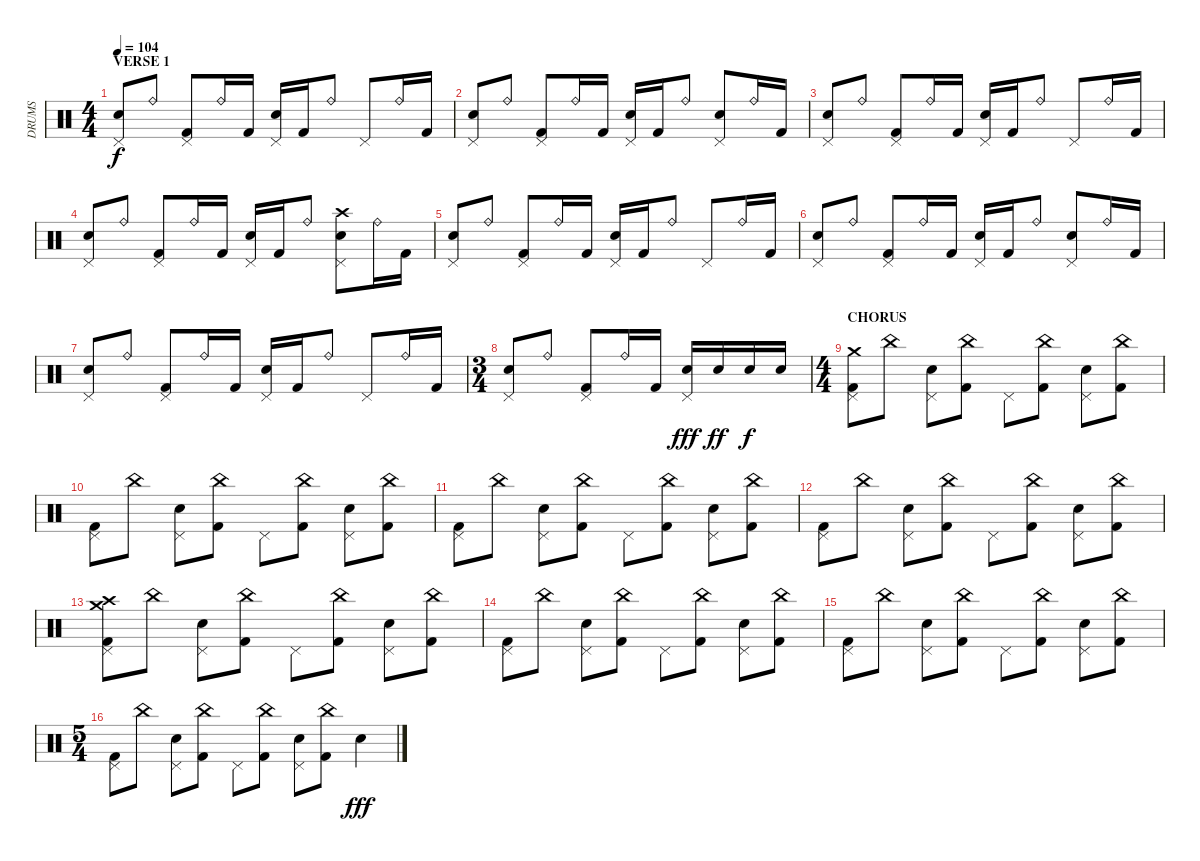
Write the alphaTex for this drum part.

\track ("DRUMS" "DRUMS") {instrument percussion}
\staff {score}
\articulation defaults
\ts (4 4)
\section ("" "VERSE 1")
\tempo 104
\clef neutral
\ks c
("Electric Snare (hit)" "Pedal Hi-Hat (hit)").8{dy f} "Ride (bell)".8 ("Pedal Hi-Hat (hit)" "Kick (hit) 2").8 "Ride (bell)".16 "Kick (hit) 2".16 ("Electric Snare (hit)" "Pedal Hi-Hat (hit)").16 "Kick (hit) 2".16 "Ride (bell)".8 "Pedal Hi-Hat (hit)".8 "Ride (bell)".16 "Kick (hit) 2".16 |
("Electric Snare (hit)" "Pedal Hi-Hat (hit)").8 "Ride (bell)".8 ("Pedal Hi-Hat (hit)" "Kick (hit) 2").8 "Ride (bell)".16 "Kick (hit) 2".16 ("Electric Snare (hit)" "Pedal Hi-Hat (hit)").16 "Kick (hit) 2".16 "Ride (bell)".8 ("Snare (hit) 2" "Pedal Hi-Hat (hit)").8 "Ride (bell)".16 "Kick (hit) 2".16 |
("Electric Snare (hit)" "Pedal Hi-Hat (hit)").8 "Ride (bell)".8 ("Pedal Hi-Hat (hit)" "Kick (hit) 2").8 "Ride (bell)".16 "Kick (hit) 2".16 ("Electric Snare (hit)" "Pedal Hi-Hat (hit)").16 "Kick (hit) 2".16 "Ride (bell)".8 "Pedal Hi-Hat (hit)".8 "Ride (bell)".16 "Kick (hit) 2".16 |
("Electric Snare (hit)" "Pedal Hi-Hat (hit)").8 "Ride (bell)".8 ("Pedal Hi-Hat (hit)" "Kick (hit) 2").8 "Ride (bell)".16 "Kick (hit) 2".16 ("Electric Snare (hit)" "Pedal Hi-Hat (hit)").16 "Kick (hit) 2".16 "Ride (bell)".8 ("Crash high (hit)" "Snare (hit) 2" "Pedal Hi-Hat (hit)").8 "Ride (bell)".16 "Kick (hit) 2".16 |
("Electric Snare (hit)" "Pedal Hi-Hat (hit)").8 "Ride (bell)".8 ("Pedal Hi-Hat (hit)" "Kick (hit) 2").8 "Ride (bell)".16 "Kick (hit) 2".16 ("Electric Snare (hit)" "Pedal Hi-Hat (hit)").16 "Kick (hit) 2".16 "Ride (bell)".8 "Pedal Hi-Hat (hit)".8 "Ride (bell)".16 "Kick (hit) 2".16 |
("Electric Snare (hit)" "Pedal Hi-Hat (hit)").8 "Ride (bell)".8 ("Pedal Hi-Hat (hit)" "Kick (hit) 2").8 "Ride (bell)".16 "Kick (hit) 2".16 ("Electric Snare (hit)" "Pedal Hi-Hat (hit)").16 "Kick (hit) 2".16 "Ride (bell)".8 ("Snare (hit) 2" "Pedal Hi-Hat (hit)").8 "Ride (bell)".16 "Kick (hit) 2".16 |
("Electric Snare (hit)" "Pedal Hi-Hat (hit)").8 "Ride (bell)".8 ("Pedal Hi-Hat (hit)" "Kick (hit) 2").8 "Ride (bell)".16 "Kick (hit) 2".16 ("Electric Snare (hit)" "Pedal Hi-Hat (hit)").16 "Kick (hit) 2".16 "Ride (bell)".8 "Pedal Hi-Hat (hit)".8 "Ride (bell)".16 "Kick (hit) 2".16 |
\ts (3 4)
("Electric Snare (hit)" "Pedal Hi-Hat (hit)").8 "Ride (bell)".8 ("Pedal Hi-Hat (hit)" "Kick (hit) 2").8 "Ride (bell)".16 "Kick (hit) 2".16 ("Electric Snare (hit)" "Pedal Hi-Hat (hit)").16{dy fff} "Electric Snare (hit)".16{dy ff} "Electric Snare (hit)".16{dy f} "Electric Snare (hit)".16 |
\ts (4 4)
\section ("" "CHORUS")
("Crash medium (hit)" "Pedal Hi-Hat (hit)" "Kick (hit) 2").8 "China (hit)".8 ("Electric Snare (hit)" "Pedal Hi-Hat (hit)").8 ("China (hit)" "Kick (hit) 2").8 "Pedal Hi-Hat (hit)".8 ("China (hit)" "Kick (hit) 2").8 ("Electric Snare (hit)" "Pedal Hi-Hat (hit)").8 ("China (hit)" "Kick (hit) 2").8 |
("Pedal Hi-Hat (hit)" "Kick (hit) 2").8 "China (hit)".8 ("Electric Snare (hit)" "Pedal Hi-Hat (hit)").8 ("China (hit)" "Kick (hit) 2").8 "Pedal Hi-Hat (hit)".8 ("China (hit)" "Kick (hit) 2").8 ("Electric Snare (hit)" "Pedal Hi-Hat (hit)").8 ("China (hit)" "Kick (hit) 2").8 |
("Pedal Hi-Hat (hit)" "Kick (hit) 2").8 "China (hit)".8 ("Electric Snare (hit)" "Pedal Hi-Hat (hit)").8 ("China (hit)" "Kick (hit) 2").8 "Pedal Hi-Hat (hit)".8 ("China (hit)" "Kick (hit) 2").8 ("Electric Snare (hit)" "Pedal Hi-Hat (hit)").8 ("China (hit)" "Kick (hit) 2").8 |
("Pedal Hi-Hat (hit)" "Kick (hit) 2").8 "China (hit)".8 ("Electric Snare (hit)" "Pedal Hi-Hat (hit)").8 ("China (hit)" "Kick (hit) 2").8 "Pedal Hi-Hat (hit)".8 ("China (hit)" "Kick (hit) 2").8 ("Electric Snare (hit)" "Pedal Hi-Hat (hit)").8 ("China (hit)" "Kick (hit) 2").8 |
("Crash medium (hit)" "Crash high (hit)" "Pedal Hi-Hat (hit)" "Kick (hit) 2").8 "China (hit)".8 ("Electric Snare (hit)" "Pedal Hi-Hat (hit)").8 ("China (hit)" "Kick (hit) 2").8 "Pedal Hi-Hat (hit)".8 ("China (hit)" "Kick (hit) 2").8 ("Electric Snare (hit)" "Pedal Hi-Hat (hit)").8 ("China (hit)" "Kick (hit) 2").8 |
("Pedal Hi-Hat (hit)" "Kick (hit) 2").8 "China (hit)".8 ("Electric Snare (hit)" "Pedal Hi-Hat (hit)").8 ("China (hit)" "Kick (hit) 2").8 "Pedal Hi-Hat (hit)".8 ("China (hit)" "Kick (hit) 2").8 ("Electric Snare (hit)" "Pedal Hi-Hat (hit)").8 ("China (hit)" "Kick (hit) 2").8 |
("Pedal Hi-Hat (hit)" "Kick (hit) 2").8 "China (hit)".8 ("Electric Snare (hit)" "Pedal Hi-Hat (hit)").8 ("China (hit)" "Kick (hit) 2").8 "Pedal Hi-Hat (hit)".8 ("China (hit)" "Kick (hit) 2").8 ("Electric Snare (hit)" "Pedal Hi-Hat (hit)").8 ("China (hit)" "Kick (hit) 2").8 |
\ts (5 4)
("Pedal Hi-Hat (hit)" "Kick (hit) 2").8 "China (hit)".8 ("Electric Snare (hit)" "Pedal Hi-Hat (hit)").8 ("China (hit)" "Kick (hit) 2").8 "Pedal Hi-Hat (hit)".8 ("China (hit)" "Kick (hit) 2").8 ("Electric Snare (hit)" "Pedal Hi-Hat (hit)").8 ("China (hit)" "Kick (hit) 2").8 "Snare (hit) 2".4{dy fff}
